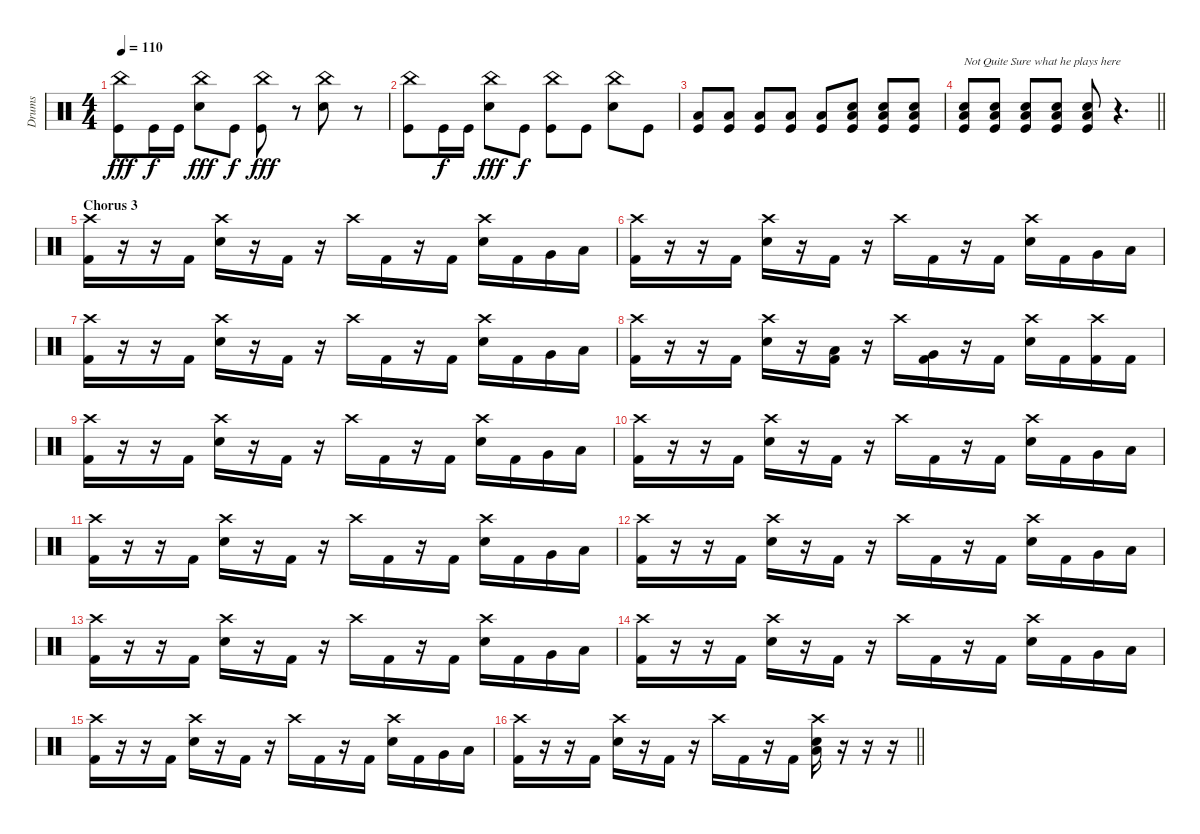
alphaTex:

\track ("Drums" "Drums") {instrument percussion}
\staff {score}
\articulation defaults
\ts (4 4)
\tempo 110
\clef neutral
\ks c
("China (hit)" "Kick (hit)").8{dy fff} "Kick (hit)".16{dy f} "Kick (hit)".16 ("China (hit)" "Snare (hit) 2").8{dy fff} "Kick (hit)".8{dy f} ("China (hit)" "Kick (hit)").8{dy fff} r.8 ("China (hit)" "Snare (hit) 2").8 r.8 |
("China (hit)" "Kick (hit)").8 "Kick (hit)".16{dy f} "Kick (hit)".16 ("China (hit)" "Snare (hit) 2").8{dy fff} "Kick (hit)".8{dy f} ("China (hit)" "Kick (hit)").8 "Kick (hit)".8 ("China (hit)" "Snare (hit) 2").8 "Kick (hit)".8 |
("Low Floor Tom (hit)" "Kick (hit)").8 ("Low Floor Tom (hit)" "Kick (hit)").8 ("Low Floor Tom (hit)" "Kick (hit)").8 ("Low Floor Tom (hit)" "Kick (hit)").8 ("Low Floor Tom (hit)" "Kick (hit)").8 ("Low Floor Tom (hit)" "Snare (hit) 2" "Kick (hit)").8 ("Low Floor Tom (hit)" "Snare (hit) 2" "Kick (hit)").8 ("Low Floor Tom (hit)" "Snare (hit) 2" "Kick (hit)").8 |
\barLineRight lightlight
("Low Floor Tom (hit)" "Snare (hit) 2" "Kick (hit)").8{txt "Not Quite Sure what he plays here"} ("Low Floor Tom (hit)" "Snare (hit) 2" "Kick (hit)").8 ("Low Floor Tom (hit)" "Snare (hit) 2" "Kick (hit)").8 ("Low Floor Tom (hit)" "Snare (hit) 2" "Kick (hit)").8 ("Low Floor Tom (hit)" "Snare (hit) 2" "Kick (hit)").8 r.4{d} |
\section ("" "Chorus 3")
("Crash high (hit)" "Kick (hit) 2").16 r.16 r.16 "Kick (hit) 2".16 ("Crash high (hit)" "Snare (hit) 2").16 r.16 "Kick (hit) 2".16 r.16 "Crash high (hit)".16 "Kick (hit) 2".16 r.16 "Kick (hit) 2".16 ("Crash high (hit)" "Snare (hit) 2").16 "Kick (hit) 2".16 "Very Low Tom (hit)".16 "Low Tom (hit)".16 |
("Crash high (hit)" "Kick (hit) 2").16 r.16 r.16 "Kick (hit) 2".16 ("Crash high (hit)" "Snare (hit) 2").16 r.16 "Kick (hit) 2".16 r.16 "Crash high (hit)".16 "Kick (hit) 2".16 r.16 "Kick (hit) 2".16 ("Crash high (hit)" "Snare (hit) 2").16 "Kick (hit) 2".16 "Very Low Tom (hit)".16 "Low Tom (hit)".16 |
("Crash high (hit)" "Kick (hit) 2").16 r.16 r.16 "Kick (hit) 2".16 ("Crash high (hit)" "Snare (hit) 2").16 r.16 "Kick (hit) 2".16 r.16 "Crash high (hit)".16 "Kick (hit) 2".16 r.16 "Kick (hit) 2".16 ("Crash high (hit)" "Snare (hit) 2").16 "Kick (hit) 2".16 "Very Low Tom (hit)".16 "Low Tom (hit)".16 |
("Crash high (hit)" "Kick (hit) 2").16 r.16 r.16 "Kick (hit) 2".16 ("Crash high (hit)" "Snare (hit) 2").16 r.16 ("Low Tom (hit)" "Kick (hit) 2").16 r.16 "Crash high (hit)".16 ("Very Low Tom (hit)" "Kick (hit) 2").16 r.16 "Kick (hit) 2".16 ("Crash high (hit)" "Snare (hit) 2").16 "Kick (hit) 2".16 ("Crash high (hit)" "Kick (hit) 2").16 "Kick (hit) 2".16 |
("Crash high (hit)" "Kick (hit) 2").16 r.16 r.16 "Kick (hit) 2".16 ("Crash high (hit)" "Snare (hit) 2").16 r.16 "Kick (hit) 2".16 r.16 "Crash high (hit)".16 "Kick (hit) 2".16 r.16 "Kick (hit) 2".16 ("Crash high (hit)" "Snare (hit) 2").16 "Kick (hit) 2".16 "Very Low Tom (hit)".16 "Low Tom (hit)".16 |
("Crash high (hit)" "Kick (hit) 2").16 r.16 r.16 "Kick (hit) 2".16 ("Crash high (hit)" "Snare (hit) 2").16 r.16 "Kick (hit) 2".16 r.16 "Crash high (hit)".16 "Kick (hit) 2".16 r.16 "Kick (hit) 2".16 ("Crash high (hit)" "Snare (hit) 2").16 "Kick (hit) 2".16 "Very Low Tom (hit)".16 "Low Tom (hit)".16 |
("Crash high (hit)" "Kick (hit) 2").16 r.16 r.16 "Kick (hit) 2".16 ("Crash high (hit)" "Snare (hit) 2").16 r.16 "Kick (hit) 2".16 r.16 "Crash high (hit)".16 "Kick (hit) 2".16 r.16 "Kick (hit) 2".16 ("Crash high (hit)" "Snare (hit) 2").16 "Kick (hit) 2".16 "Very Low Tom (hit)".16 "Low Tom (hit)".16 |
("Crash high (hit)" "Kick (hit) 2").16 r.16 r.16 "Kick (hit) 2".16 ("Crash high (hit)" "Snare (hit) 2").16 r.16 "Kick (hit) 2".16 r.16 "Crash high (hit)".16 "Kick (hit) 2".16 r.16 "Kick (hit) 2".16 ("Crash high (hit)" "Snare (hit) 2").16 "Kick (hit) 2".16 "Very Low Tom (hit)".16 "Low Tom (hit)".16 |
("Crash high (hit)" "Kick (hit) 2").16 r.16 r.16 "Kick (hit) 2".16 ("Crash high (hit)" "Snare (hit) 2").16 r.16 "Kick (hit) 2".16 r.16 "Crash high (hit)".16 "Kick (hit) 2".16 r.16 "Kick (hit) 2".16 ("Crash high (hit)" "Snare (hit) 2").16 "Kick (hit) 2".16 "Very Low Tom (hit)".16 "Low Tom (hit)".16 |
("Crash high (hit)" "Kick (hit) 2").16 r.16 r.16 "Kick (hit) 2".16 ("Crash high (hit)" "Snare (hit) 2").16 r.16 "Kick (hit) 2".16 r.16 "Crash high (hit)".16 "Kick (hit) 2".16 r.16 "Kick (hit) 2".16 ("Crash high (hit)" "Snare (hit) 2").16 "Kick (hit) 2".16 "Very Low Tom (hit)".16 "Low Tom (hit)".16 |
("Crash high (hit)" "Kick (hit) 2").16 r.16 r.16 "Kick (hit) 2".16 ("Crash high (hit)" "Snare (hit) 2").16 r.16 "Kick (hit) 2".16 r.16 "Crash high (hit)".16 "Kick (hit) 2".16 r.16 "Kick (hit) 2".16 ("Crash high (hit)" "Snare (hit) 2").16 "Kick (hit) 2".16 "Very Low Tom (hit)".16 "Low Tom (hit)".16 |
\barLineRight lightlight
("Crash high (hit)" "Kick (hit) 2").16 r.16 r.16 "Kick (hit) 2".16 ("Crash high (hit)" "Snare (hit) 2").16 r.16 "Kick (hit) 2".16 r.16 "Crash high (hit)".16 "Kick (hit) 2".16 r.16 "Kick (hit) 2".16 ("Crash high (hit)" "Low Floor Tom (hit)" "Snare (hit) 2").16 r.16 r.16 r.16
